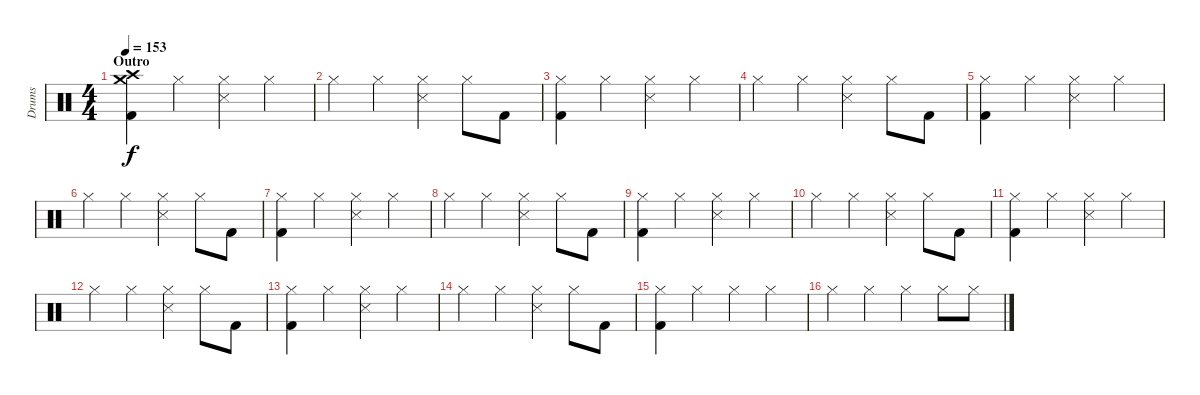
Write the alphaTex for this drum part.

\track ("Drums" "Drums") {instrument percussion}
\staff {score}
\articulation defaults
\ts (4 4)
\section ("" "Outro")
\tempo 153
\clef neutral
\ks c
("Crash medium (hit)" "Crash high (hit)" "Kick (hit) 2").4{dy f volume 13} "Hi-Hat (closed)".4 ("Hi-Hat (closed)" "Snare (side stick) 3").4 "Hi-Hat (closed)".4 |
"Hi-Hat (closed)".4 "Hi-Hat (closed)".4 ("Hi-Hat (closed)" "Snare (side stick) 3").4 "Hi-Hat (closed)".8 "Kick (hit) 2".8 |
("Hi-Hat (closed)" "Kick (hit) 2").4 "Hi-Hat (closed)".4 ("Hi-Hat (closed)" "Snare (side stick) 3").4 "Hi-Hat (closed)".4 |
"Hi-Hat (closed)".4 "Hi-Hat (closed)".4 ("Hi-Hat (closed)" "Snare (side stick) 3").4 "Hi-Hat (closed)".8 "Kick (hit) 2".8 |
("Hi-Hat (closed)" "Kick (hit) 2").4{volume 11} "Hi-Hat (closed)".4 ("Hi-Hat (closed)" "Snare (side stick) 3").4 "Hi-Hat (closed)".4 |
"Hi-Hat (closed)".4 "Hi-Hat (closed)".4 ("Hi-Hat (closed)" "Snare (side stick) 3").4 "Hi-Hat (closed)".8 "Kick (hit) 2".8 |
("Hi-Hat (closed)" "Kick (hit) 2").4 "Hi-Hat (closed)".4 ("Hi-Hat (closed)" "Snare (side stick) 3").4 "Hi-Hat (closed)".4 |
"Hi-Hat (closed)".4 "Hi-Hat (closed)".4 ("Hi-Hat (closed)" "Snare (side stick) 3").4 "Hi-Hat (closed)".8 "Kick (hit) 2".8 |
("Hi-Hat (closed)" "Kick (hit) 2").4 "Hi-Hat (closed)".4 ("Hi-Hat (closed)" "Snare (side stick) 3").4 "Hi-Hat (closed)".4 |
"Hi-Hat (closed)".4 "Hi-Hat (closed)".4 ("Hi-Hat (closed)" "Snare (side stick) 3").4 "Hi-Hat (closed)".8 "Kick (hit) 2".8 |
("Hi-Hat (closed)" "Kick (hit) 2").4 "Hi-Hat (closed)".4 ("Hi-Hat (closed)" "Snare (side stick) 3").4 "Hi-Hat (closed)".4 |
"Hi-Hat (closed)".4 "Hi-Hat (closed)".4 ("Hi-Hat (closed)" "Snare (side stick) 3").4 "Hi-Hat (closed)".8 "Kick (hit) 2".8 |
("Hi-Hat (closed)" "Kick (hit) 2").4 "Hi-Hat (closed)".4 ("Hi-Hat (closed)" "Snare (side stick) 3").4 "Hi-Hat (closed)".4 |
"Hi-Hat (closed)".4 "Hi-Hat (closed)".4 ("Hi-Hat (closed)" "Snare (side stick) 3").4 "Hi-Hat (closed)".8 "Kick (hit) 2".8 |
("Hi-Hat (closed)" "Kick (hit) 2").4 "Hi-Hat (closed)".4 "Hi-Hat (closed)".4 "Hi-Hat (closed)".4 |
"Hi-Hat (closed)".4 "Hi-Hat (closed)".4 "Hi-Hat (closed)".4 "Hi-Hat (closed)".8 "Hi-Hat (closed)".8
